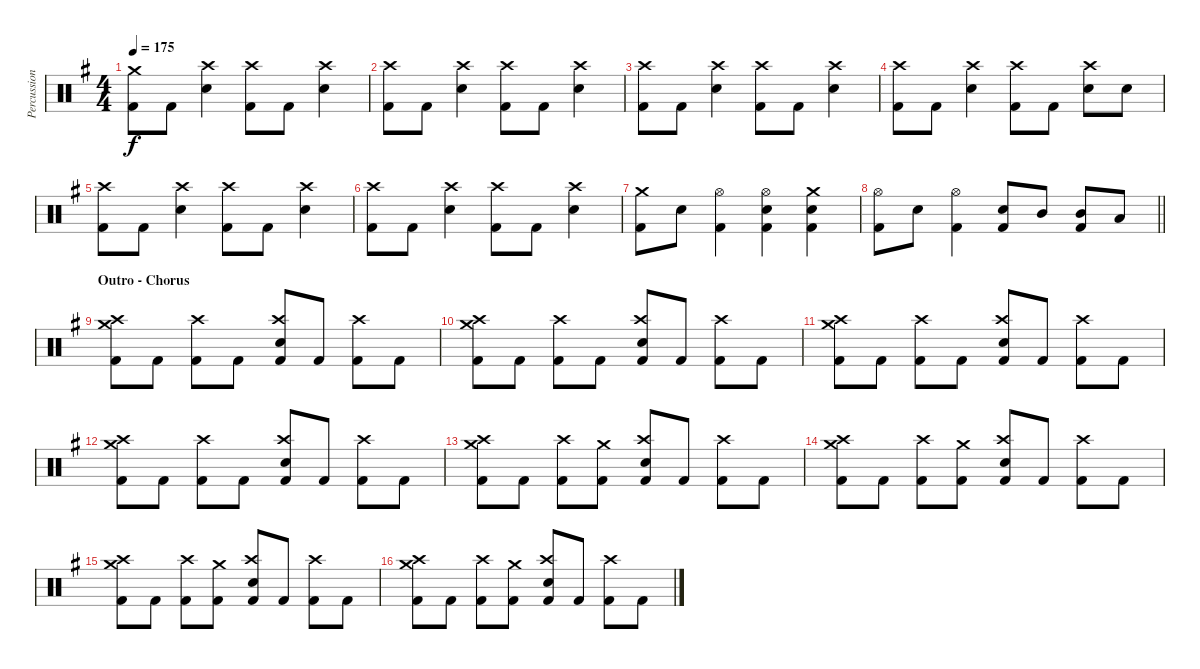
\track ("Percussion" "Percussion") {instrument percussion}
\staff {score}
\articulation defaults
\ts (4 4)
\tempo 175
\clef neutral
\ks g
("Crash medium (hit)" "Kick (hit) 2").8{dy f} "Kick (hit) 2".8 ("Crash high (hit)" "Snare (hit) 2").4 ("Crash high (hit)" "Kick (hit) 2").8 "Kick (hit) 2".8 ("Crash high (hit)" "Snare (hit) 2").4 |
("Crash high (hit)" "Kick (hit) 2").8 "Kick (hit) 2".8 ("Crash high (hit)" "Snare (hit) 2").4 ("Crash high (hit)" "Kick (hit) 2").8 "Kick (hit) 2".8 ("Crash high (hit)" "Snare (hit) 2").4 |
("Crash high (hit)" "Kick (hit) 2").8 "Kick (hit) 2".8 ("Crash high (hit)" "Snare (hit) 2").4 ("Crash high (hit)" "Kick (hit) 2").8 "Kick (hit) 2".8 ("Crash high (hit)" "Snare (hit) 2").4 |
("Crash high (hit)" "Kick (hit) 2").8 "Kick (hit) 2".8 ("Crash high (hit)" "Snare (hit) 2").4 ("Crash high (hit)" "Kick (hit) 2").8 "Kick (hit) 2".8 ("Crash high (hit)" "Snare (hit) 2").8 "Snare (hit) 2".8 |
("Crash high (hit)" "Kick (hit) 2").8 "Kick (hit) 2".8 ("Crash high (hit)" "Snare (hit) 2").4 ("Crash high (hit)" "Kick (hit) 2").8 "Kick (hit) 2".8 ("Crash high (hit)" "Snare (hit) 2").4 |
("Crash high (hit)" "Kick (hit) 2").8 "Kick (hit) 2".8 ("Crash high (hit)" "Snare (hit) 2").4 ("Crash high (hit)" "Kick (hit) 2").8 "Kick (hit) 2".8 ("Crash high (hit)" "Snare (hit) 2").4 |
("Crash medium (hit)" "Kick (hit) 2").8 "Snare (hit) 2".8 ("Hi-Hat (open)" "Kick (hit) 2").4 ("Hi-Hat (open)" "Snare (hit) 2" "Kick (hit) 2").4 ("Crash medium (hit)" "Snare (hit) 2" "Kick (hit) 2").4 |
\barLineRight lightlight
("Hi-Hat (open)" "Kick (hit) 2").8 "Snare (hit) 2".8 ("Hi-Hat (open)" "Kick (hit) 2").4 ("Snare (hit) 2" "Kick (hit) 2").8 "Mid Tom (hit)".8 ("Mid Tom (hit)" "Kick (hit) 2").8 "Low Floor Tom (hit)".8 |
\section ("" "Outro - Chorus")
("Crash high (hit)" "Crash medium (hit)" "Kick (hit) 2").8 "Kick (hit) 2".8 ("Crash high (hit)" "Kick (hit) 2").8 "Kick (hit) 2".8 ("Crash high (hit)" "Snare (hit) 2" "Kick (hit) 2").8 "Kick (hit) 2".8 ("Crash high (hit)" "Kick (hit) 2").8 "Kick (hit) 2".8 |
("Crash high (hit)" "Crash medium (hit)" "Kick (hit) 2").8 "Kick (hit) 2".8 ("Crash high (hit)" "Kick (hit) 2").8 "Kick (hit) 2".8 ("Crash high (hit)" "Snare (hit) 2" "Kick (hit) 2").8 "Kick (hit) 2".8 ("Crash high (hit)" "Kick (hit) 2").8 "Kick (hit) 2".8 |
("Crash high (hit)" "Crash medium (hit)" "Kick (hit) 2").8 "Kick (hit) 2".8 ("Crash high (hit)" "Kick (hit) 2").8 "Kick (hit) 2".8 ("Crash high (hit)" "Snare (hit) 2" "Kick (hit) 2").8 "Kick (hit) 2".8 ("Crash high (hit)" "Kick (hit) 2").8 "Kick (hit) 2".8 |
("Crash high (hit)" "Crash medium (hit)" "Kick (hit) 2").8 "Kick (hit) 2".8 ("Crash high (hit)" "Kick (hit) 2").8 "Kick (hit) 2".8 ("Crash high (hit)" "Snare (hit) 2" "Kick (hit) 2").8 "Kick (hit) 2".8 ("Crash high (hit)" "Kick (hit) 2").8 "Kick (hit) 2".8 |
("Crash high (hit)" "Crash medium (hit)" "Kick (hit) 2").8 "Kick (hit) 2".8 ("Crash high (hit)" "Kick (hit) 2").8 ("Crash medium (hit)" "Kick (hit) 2").8 ("Crash high (hit)" "Snare (hit) 2" "Kick (hit) 2").8 "Kick (hit) 2".8 ("Crash high (hit)" "Kick (hit) 2").8 "Kick (hit) 2".8 |
("Crash high (hit)" "Crash medium (hit)" "Kick (hit) 2").8 "Kick (hit) 2".8 ("Crash high (hit)" "Kick (hit) 2").8 ("Crash medium (hit)" "Kick (hit) 2").8 ("Crash high (hit)" "Snare (hit) 2" "Kick (hit) 2").8 "Kick (hit) 2".8 ("Crash high (hit)" "Kick (hit) 2").8 "Kick (hit) 2".8 |
("Crash high (hit)" "Crash medium (hit)" "Kick (hit) 2").8 "Kick (hit) 2".8 ("Crash high (hit)" "Kick (hit) 2").8 ("Crash medium (hit)" "Kick (hit) 2").8 ("Crash high (hit)" "Snare (hit) 2" "Kick (hit) 2").8 "Kick (hit) 2".8 ("Crash high (hit)" "Kick (hit) 2").8 "Kick (hit) 2".8 |
("Crash high (hit)" "Crash medium (hit)" "Kick (hit) 2").8 "Kick (hit) 2".8 ("Crash high (hit)" "Kick (hit) 2").8 ("Crash medium (hit)" "Kick (hit) 2").8 ("Crash high (hit)" "Snare (hit) 2" "Kick (hit) 2").8 "Kick (hit) 2".8 ("Crash high (hit)" "Kick (hit) 2").8 "Kick (hit) 2".8
